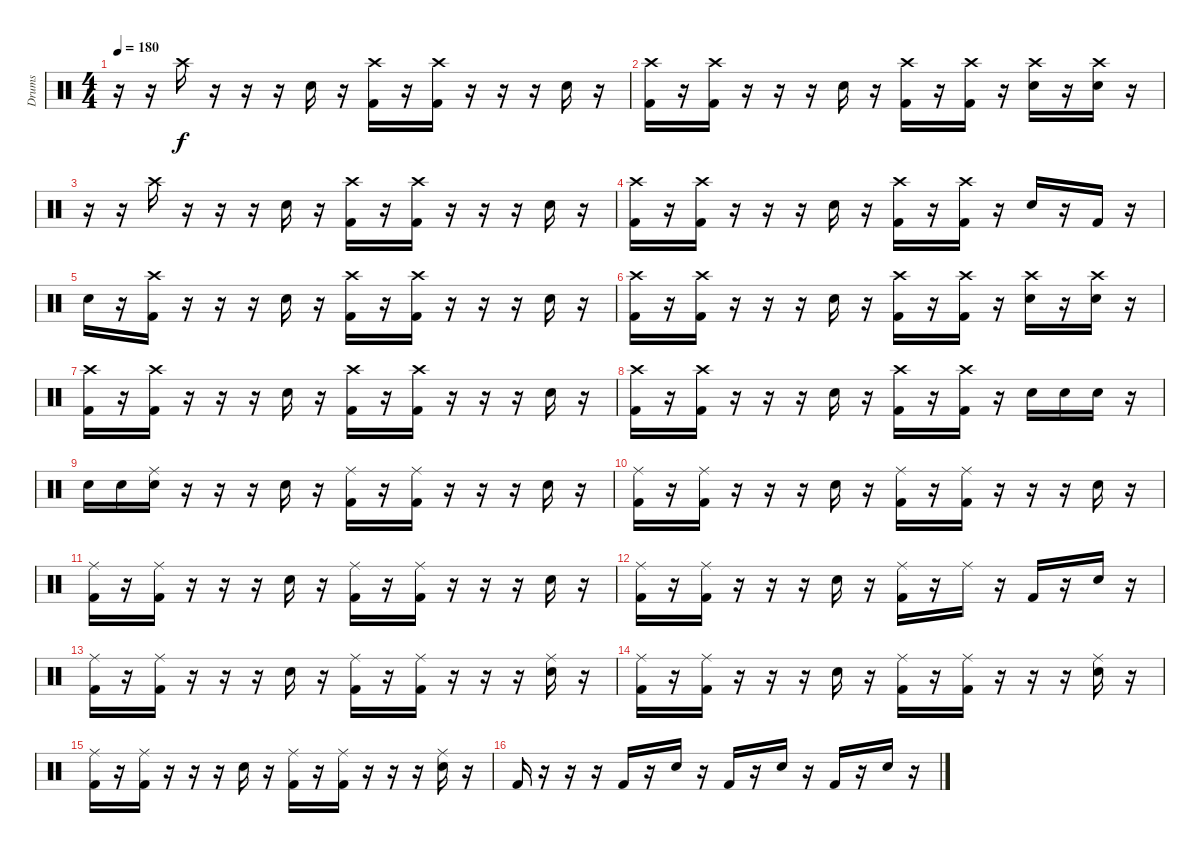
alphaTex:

\track ("Drums" "Drums") {instrument percussion}
\staff {score}
\articulation defaults
\ts (4 4)
\tempo 180
\clef neutral
\ks c
r.16{dy f} r.16 "Crash high (hit)".16 r.16 r.16 r.16 "Snare (hit) 2".16 r.16 ("Crash high (hit)" "Kick (hit) 2").16 r.16 ("Crash high (hit)" "Kick (hit) 2").16 r.16 r.16 r.16 "Snare (hit) 2".16 r.16 |
("Crash high (hit)" "Kick (hit) 2").16 r.16 ("Crash high (hit)" "Kick (hit) 2").16 r.16 r.16 r.16 "Snare (hit) 2".16 r.16 ("Crash high (hit)" "Kick (hit) 2").16 r.16 ("Crash high (hit)" "Kick (hit) 2").16 r.16 ("Crash high (hit)" "Snare (hit) 2").16 r.16 ("Crash high (hit)" "Snare (hit) 2").16 r.16 |
r.16 r.16 "Crash high (hit)".16 r.16 r.16 r.16 "Snare (hit) 2".16 r.16 ("Crash high (hit)" "Kick (hit) 2").16 r.16 ("Crash high (hit)" "Kick (hit) 2").16 r.16 r.16 r.16 "Snare (hit) 2".16 r.16 |
("Crash high (hit)" "Kick (hit) 2").16 r.16 ("Crash high (hit)" "Kick (hit) 2").16 r.16 r.16 r.16 "Snare (hit) 2".16 r.16 ("Crash high (hit)" "Kick (hit) 2").16 r.16 ("Crash high (hit)" "Kick (hit) 2").16 r.16 "Snare (hit) 2".16 r.16 "Kick (hit) 2".16 r.16 |
"Snare (hit) 2".16 r.16 ("Crash high (hit)" "Kick (hit) 2").16 r.16 r.16 r.16 "Snare (hit) 2".16 r.16 ("Crash high (hit)" "Kick (hit) 2").16 r.16 ("Crash high (hit)" "Kick (hit) 2").16 r.16 r.16 r.16 "Snare (hit) 2".16 r.16 |
("Crash high (hit)" "Kick (hit) 2").16 r.16 ("Crash high (hit)" "Kick (hit) 2").16 r.16 r.16 r.16 "Snare (hit) 2".16 r.16 ("Crash high (hit)" "Kick (hit) 2").16 r.16 ("Crash high (hit)" "Kick (hit) 2").16 r.16 ("Crash high (hit)" "Snare (hit) 2").16 r.16 ("Crash high (hit)" "Snare (hit) 2").16 r.16 |
("Crash high (hit)" "Kick (hit) 2").16 r.16 ("Crash high (hit)" "Kick (hit) 2").16 r.16 r.16 r.16 "Snare (hit) 2".16 r.16 ("Crash high (hit)" "Kick (hit) 2").16 r.16 ("Crash high (hit)" "Kick (hit) 2").16 r.16 r.16 r.16 "Snare (hit) 2".16 r.16 |
("Crash high (hit)" "Kick (hit) 2").16 r.16 ("Crash high (hit)" "Kick (hit) 2").16 r.16 r.16 r.16 "Snare (hit) 2".16 r.16 ("Crash high (hit)" "Kick (hit) 2").16 r.16 ("Crash high (hit)" "Kick (hit) 2").16 r.16 "Snare (hit) 2".16 "Snare (hit) 2".16 "Snare (hit) 2".16 r.16 |
"Snare (hit) 2".16 "Snare (hit) 2".16 ("Ride (middle)" "Snare (hit) 2").16 r.16 r.16 r.16 "Snare (hit) 2".16 r.16 ("Ride (middle)" "Kick (hit) 2").16 r.16 ("Ride (middle)" "Kick (hit) 2").16 r.16 r.16 r.16 "Snare (hit) 2".16 r.16 |
("Ride (middle)" "Kick (hit) 2").16 r.16 ("Ride (middle)" "Kick (hit) 2").16 r.16 r.16 r.16 "Snare (hit) 2".16 r.16 ("Ride (middle)" "Kick (hit) 2").16 r.16 ("Ride (middle)" "Kick (hit) 2").16 r.16 r.16 r.16 "Snare (hit) 2".16 r.16 |
("Ride (middle)" "Kick (hit) 2").16 r.16 ("Ride (middle)" "Kick (hit) 2").16 r.16 r.16 r.16 "Snare (hit) 2".16 r.16 ("Ride (middle)" "Kick (hit) 2").16 r.16 ("Ride (middle)" "Kick (hit) 2").16 r.16 r.16 r.16 "Snare (hit) 2".16 r.16 |
("Ride (middle)" "Kick (hit) 2").16 r.16 ("Ride (middle)" "Kick (hit) 2").16 r.16 r.16 r.16 "Snare (hit) 2".16 r.16 ("Ride (middle)" "Kick (hit) 2").16 r.16 "Ride (middle)".16 r.16 "Kick (hit) 2".16 r.16 "Snare (hit) 2".16 r.16 |
("Ride (middle)" "Kick (hit) 2").16 r.16 ("Ride (middle)" "Kick (hit) 2").16 r.16 r.16 r.16 "Snare (hit) 2".16 r.16 ("Ride (middle)" "Kick (hit) 2").16 r.16 ("Ride (middle)" "Kick (hit) 2").16 r.16 r.16 r.16 ("Ride (middle)" "Snare (hit) 2").16 r.16 |
("Ride (middle)" "Kick (hit) 2").16 r.16 ("Ride (middle)" "Kick (hit) 2").16 r.16 r.16 r.16 "Snare (hit) 2".16 r.16 ("Ride (middle)" "Kick (hit) 2").16 r.16 ("Ride (middle)" "Kick (hit) 2").16 r.16 r.16 r.16 ("Ride (middle)" "Snare (hit) 2").16 r.16 |
("Ride (middle)" "Kick (hit) 2").16 r.16 ("Ride (middle)" "Kick (hit) 2").16 r.16 r.16 r.16 "Snare (hit) 2".16 r.16 ("Ride (middle)" "Kick (hit) 2").16 r.16 ("Ride (middle)" "Kick (hit) 2").16 r.16 r.16 r.16 ("Ride (middle)" "Snare (hit) 2").16 r.16 |
"Kick (hit) 2".16 r.16 r.16 r.16 "Kick (hit) 2".16 r.16 "Snare (hit) 2".16 r.16 "Kick (hit) 2".16 r.16 "Snare (hit) 2".16 r.16 "Kick (hit) 2".16 r.16 "Snare (hit) 2".16 r.16
